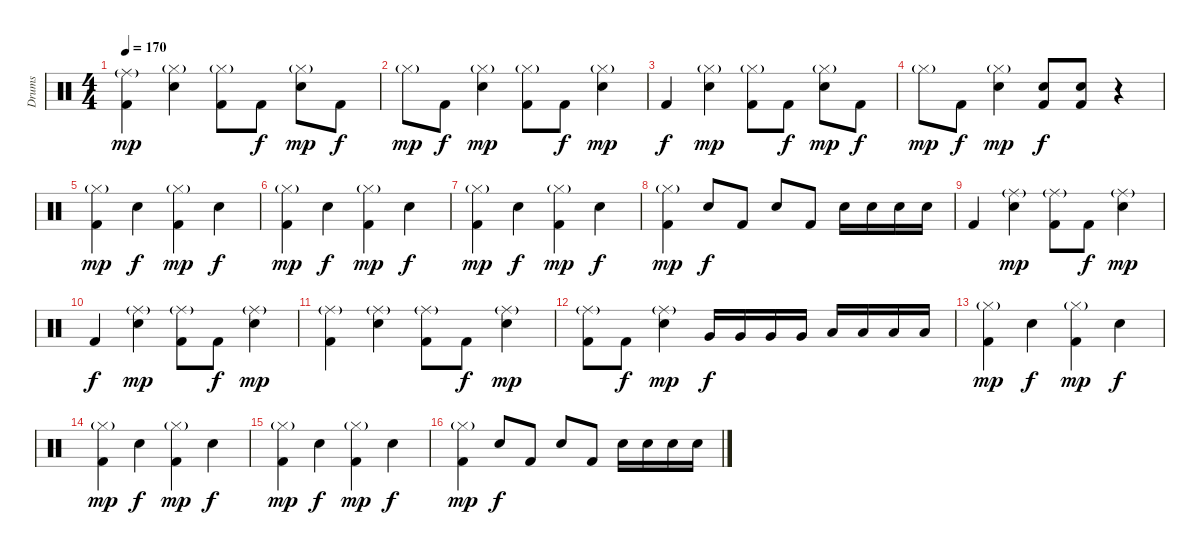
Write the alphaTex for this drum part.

\track ("Drums" "Drums") {instrument percussion}
\staff {score}
\articulation defaults
\ts (4 4)
\tempo 170
\clef neutral
\ks c
("Ride (middle)"{g} "Kick (hit) 2").4{dy mp} ("Hi-Hat (closed)"{g} "Electric Snare (hit)").4 ("Hi-Hat (closed)"{g} "Kick (hit) 2").8 "Kick (hit) 2".8{dy f} ("Hi-Hat (closed)"{g} "Electric Snare (hit)").8{dy mp} "Kick (hit) 2".8{dy f} |
"Hi-Hat (closed)"{g}.8{dy mp} "Kick (hit) 2".8{dy f} ("Hi-Hat (closed)"{g} "Electric Snare (hit)").4{dy mp} ("Hi-Hat (closed)"{g} "Kick (hit) 2").8 "Kick (hit) 2".8{dy f} ("Hi-Hat (closed)"{g} "Electric Snare (hit)").4{dy mp} |
"Kick (hit) 2".4{dy f} ("Hi-Hat (closed)"{g} "Electric Snare (hit)").4{dy mp} ("Hi-Hat (closed)"{g} "Kick (hit) 2").8 "Kick (hit) 2".8{dy f} ("Hi-Hat (closed)"{g} "Electric Snare (hit)").8{dy mp} "Kick (hit) 2".8{dy f} |
"Hi-Hat (closed)"{g}.8{dy mp} "Kick (hit) 2".8{dy f} ("Hi-Hat (closed)"{g} "Electric Snare (hit)").4{dy mp} ("Electric Snare (hit)" "Kick (hit) 2").8{dy f} ("Electric Snare (hit)" "Kick (hit) 2").8 r.4 |
("Hi-Hat (closed)"{g} "Kick (hit) 2").4{dy mp} "Electric Snare (hit)".4{dy f} ("Hi-Hat (closed)"{g} "Kick (hit) 2").4{dy mp} "Electric Snare (hit)".4{dy f} |
("Hi-Hat (closed)"{g} "Kick (hit) 2").4{dy mp} "Electric Snare (hit)".4{dy f} ("Hi-Hat (closed)"{g} "Kick (hit) 2").4{dy mp} "Electric Snare (hit)".4{dy f} |
("Hi-Hat (closed)"{g} "Kick (hit) 2").4{dy mp} "Electric Snare (hit)".4{dy f} ("Hi-Hat (closed)"{g} "Kick (hit) 2").4{dy mp} "Electric Snare (hit)".4{dy f} |
("Hi-Hat (closed)"{g} "Kick (hit) 2").4{dy mp} "Electric Snare (hit)".8{dy f} "Kick (hit) 2".8 "Electric Snare (hit)".8 "Kick (hit) 2".8 "Electric Snare (hit)".16 "Electric Snare (hit)".16 "Electric Snare (hit)".16 "Electric Snare (hit)".16 |
"Kick (hit) 2".4 ("Ride (middle)"{g} "Electric Snare (hit)").4{dy mp} ("Ride (middle)"{g} "Kick (hit) 2").8 "Kick (hit) 2".8{dy f} ("Ride (middle)"{g} "Electric Snare (hit)").4{dy mp} |
"Kick (hit) 2".4{dy f} ("Ride (middle)"{g} "Electric Snare (hit)").4{dy mp} ("Ride (middle)"{g} "Kick (hit) 2").8 "Kick (hit) 2".8{dy f} ("Ride (middle)"{g} "Electric Snare (hit)").4{dy mp} |
("Ride (middle)"{g} "Kick (hit) 2").4 ("Ride (middle)"{g} "Electric Snare (hit)").4 ("Ride (middle)"{g} "Kick (hit) 2").8 "Kick (hit) 2".8{dy f} ("Ride (middle)"{g} "Electric Snare (hit)").4{dy mp} |
("Ride (middle)"{g} "Kick (hit) 2").8 "Kick (hit) 2".8{dy f} ("Ride (middle)"{g} "Electric Snare (hit)").4{dy mp} "Very Low Tom (hit)".16{dy f} "Very Low Tom (hit)".16 "Very Low Tom (hit)".16 "Very Low Tom (hit)".16 "Low Floor Tom (hit)".16 "Low Floor Tom (hit)".16 "Low Floor Tom (hit)".16 "Low Floor Tom (hit)".16 |
("Hi-Hat (closed)"{g} "Kick (hit) 2").4{dy mp} "Electric Snare (hit)".4{dy f} ("Hi-Hat (closed)"{g} "Kick (hit) 2").4{dy mp} "Electric Snare (hit)".4{dy f} |
("Hi-Hat (closed)"{g} "Kick (hit) 2").4{dy mp} "Electric Snare (hit)".4{dy f} ("Hi-Hat (closed)"{g} "Kick (hit) 2").4{dy mp} "Electric Snare (hit)".4{dy f} |
("Hi-Hat (closed)"{g} "Kick (hit) 2").4{dy mp} "Electric Snare (hit)".4{dy f} ("Hi-Hat (closed)"{g} "Kick (hit) 2").4{dy mp} "Electric Snare (hit)".4{dy f} |
("Hi-Hat (closed)"{g} "Kick (hit) 2").4{dy mp} "Electric Snare (hit)".8{dy f} "Kick (hit) 2".8 "Electric Snare (hit)".8 "Kick (hit) 2".8 "Electric Snare (hit)".16 "Electric Snare (hit)".16 "Electric Snare (hit)".16 "Electric Snare (hit)".16
